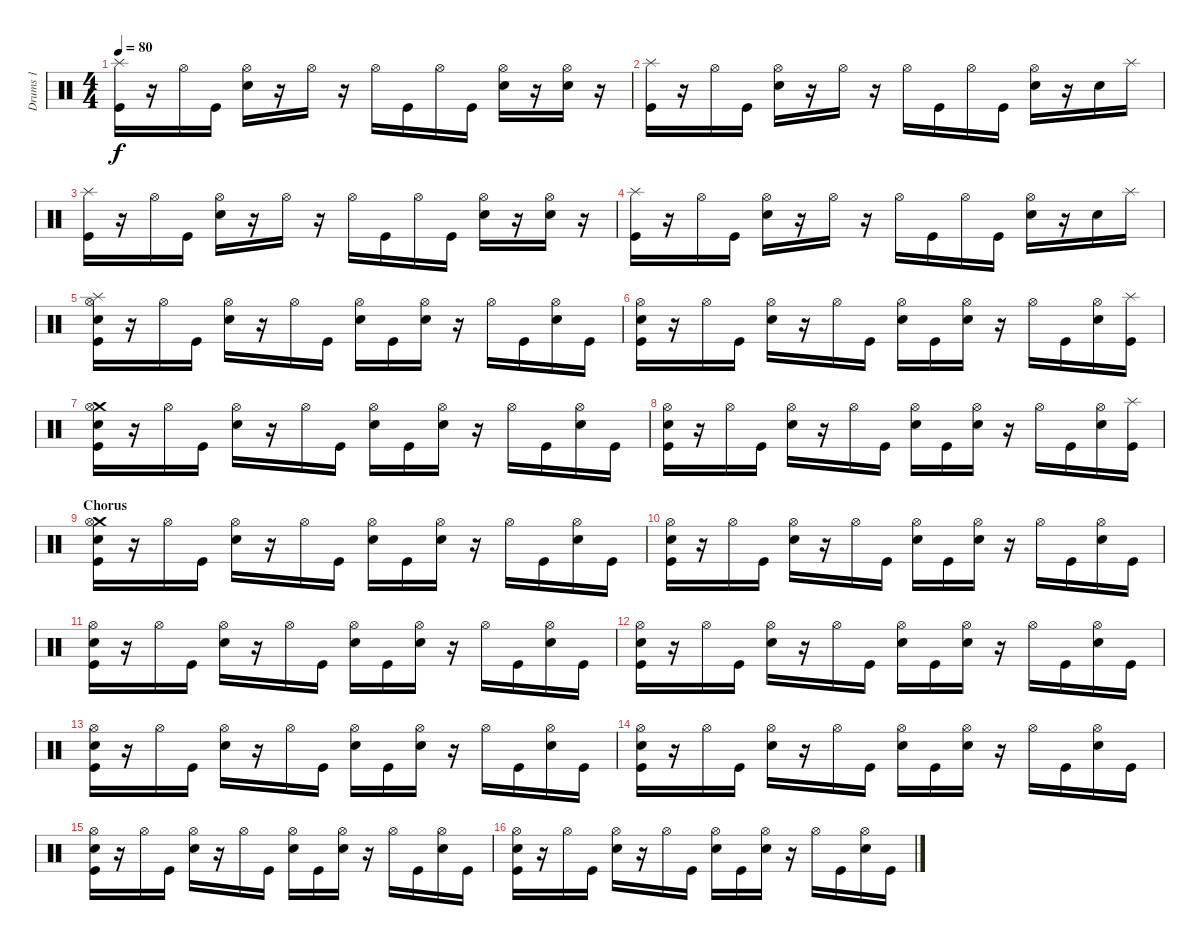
\track ("Drums 1" "Drums 1") {instrument percussion}
\staff {score}
\articulation defaults
\ts (4 4)
\tempo 80
\clef neutral
\ks c
("Splash (hit)" "Kick (hit)").16{dy f} r.16 "Hi-Hat (open)".16 "Kick (hit)".16 ("Hi-Hat (open)" "Electric Snare (hit)").16 r.16 "Hi-Hat (open)".16 r.16 "Hi-Hat (open)".16 "Kick (hit)".16 "Hi-Hat (open)".16 "Kick (hit)".16 ("Hi-Hat (open)" "Electric Snare (hit)").16 r.16 ("Hi-Hat (open)" "Electric Snare (hit)").16 r.16 |
("Splash (hit)" "Kick (hit)").16 r.16 "Hi-Hat (open)".16 "Kick (hit)".16 ("Hi-Hat (open)" "Electric Snare (hit)").16 r.16 "Hi-Hat (open)".16 r.16 "Hi-Hat (open)".16 "Kick (hit)".16 "Hi-Hat (open)".16 "Kick (hit)".16 ("Hi-Hat (open)" "Electric Snare (hit)").16 r.16 "Electric Snare (hit)".16 "Splash (hit)".16 |
("Splash (hit)" "Kick (hit)").16 r.16 "Hi-Hat (open)".16 "Kick (hit)".16 ("Hi-Hat (open)" "Electric Snare (hit)").16 r.16 "Hi-Hat (open)".16 r.16 "Hi-Hat (open)".16 "Kick (hit)".16 "Hi-Hat (open)".16 "Kick (hit)".16 ("Hi-Hat (open)" "Electric Snare (hit)").16 r.16 ("Hi-Hat (open)" "Electric Snare (hit)").16 r.16 |
("Splash (hit)" "Kick (hit)").16 r.16 "Hi-Hat (open)".16 "Kick (hit)".16 ("Hi-Hat (open)" "Electric Snare (hit)").16 r.16 "Hi-Hat (open)".16 r.16 "Hi-Hat (open)".16 "Kick (hit)".16 "Hi-Hat (open)".16 "Kick (hit)".16 ("Hi-Hat (open)" "Electric Snare (hit)").16 r.16 "Electric Snare (hit)".16 "Splash (hit)".16 |
("Splash (hit)" "Hi-Hat (open)" "Electric Snare (hit)" "Kick (hit)").16 r.16 "Hi-Hat (open)".16 "Kick (hit)".16 ("Hi-Hat (open)" "Electric Snare (hit)").16 r.16 "Hi-Hat (open)".16 "Kick (hit)".16 ("Hi-Hat (open)" "Electric Snare (hit)").16 "Kick (hit)".16 ("Hi-Hat (open)" "Electric Snare (hit)").16 r.16 "Hi-Hat (open)".16 "Kick (hit)".16 ("Hi-Hat (open)" "Electric Snare (hit)").16 "Kick (hit)".16 |
("Hi-Hat (open)" "Electric Snare (hit)" "Kick (hit)").16 r.16 "Hi-Hat (open)".16 "Kick (hit)".16 ("Hi-Hat (open)" "Electric Snare (hit)").16 r.16 "Hi-Hat (open)".16 "Kick (hit)".16 ("Hi-Hat (open)" "Electric Snare (hit)").16 "Kick (hit)".16 ("Hi-Hat (open)" "Electric Snare (hit)").16 r.16 "Hi-Hat (open)".16 "Kick (hit)".16 ("Hi-Hat (open)" "Electric Snare (hit)").16 ("Splash (hit)" "Kick (hit)").16 |
("Crash medium (hit)" "Hi-Hat (open)" "Electric Snare (hit)" "Kick (hit)").16 r.16 "Hi-Hat (open)".16 "Kick (hit)".16 ("Hi-Hat (open)" "Electric Snare (hit)").16 r.16 "Hi-Hat (open)".16 "Kick (hit)".16 ("Hi-Hat (open)" "Electric Snare (hit)").16 "Kick (hit)".16 ("Hi-Hat (open)" "Electric Snare (hit)").16 r.16 "Hi-Hat (open)".16 "Kick (hit)".16 ("Hi-Hat (open)" "Electric Snare (hit)").16 "Kick (hit)".16 |
("Hi-Hat (open)" "Electric Snare (hit)" "Kick (hit)").16 r.16 "Hi-Hat (open)".16 "Kick (hit)".16 ("Hi-Hat (open)" "Electric Snare (hit)").16 r.16 "Hi-Hat (open)".16 "Kick (hit)".16 ("Hi-Hat (open)" "Electric Snare (hit)").16 "Kick (hit)".16 ("Hi-Hat (open)" "Electric Snare (hit)").16 r.16 "Hi-Hat (open)".16 "Kick (hit)".16 ("Hi-Hat (open)" "Electric Snare (hit)").16 ("Splash (hit)" "Kick (hit)").16 |
\section ("" "Chorus")
("Crash medium (hit)" "Hi-Hat (open)" "Electric Snare (hit)" "Kick (hit)").16 r.16 "Hi-Hat (open)".16 "Kick (hit)".16 ("Hi-Hat (open)" "Electric Snare (hit)").16 r.16 "Hi-Hat (open)".16 "Kick (hit)".16 ("Hi-Hat (open)" "Electric Snare (hit)").16 "Kick (hit)".16 ("Hi-Hat (open)" "Electric Snare (hit)").16 r.16 "Hi-Hat (open)".16 "Kick (hit)".16 ("Hi-Hat (open)" "Electric Snare (hit)").16 "Kick (hit)".16 |
("Hi-Hat (open)" "Electric Snare (hit)" "Kick (hit)").16 r.16 "Hi-Hat (open)".16 "Kick (hit)".16 ("Hi-Hat (open)" "Electric Snare (hit)").16 r.16 "Hi-Hat (open)".16 "Kick (hit)".16 ("Hi-Hat (open)" "Electric Snare (hit)").16 "Kick (hit)".16 ("Hi-Hat (open)" "Electric Snare (hit)").16 r.16 "Hi-Hat (open)".16 "Kick (hit)".16 ("Hi-Hat (open)" "Electric Snare (hit)").16 "Kick (hit)".16 |
("Hi-Hat (open)" "Electric Snare (hit)" "Kick (hit)").16 r.16 "Hi-Hat (open)".16 "Kick (hit)".16 ("Hi-Hat (open)" "Electric Snare (hit)").16 r.16 "Hi-Hat (open)".16 "Kick (hit)".16 ("Hi-Hat (open)" "Electric Snare (hit)").16 "Kick (hit)".16 ("Hi-Hat (open)" "Electric Snare (hit)").16 r.16 "Hi-Hat (open)".16 "Kick (hit)".16 ("Hi-Hat (open)" "Electric Snare (hit)").16 "Kick (hit)".16 |
("Hi-Hat (open)" "Electric Snare (hit)" "Kick (hit)").16 r.16 "Hi-Hat (open)".16 "Kick (hit)".16 ("Hi-Hat (open)" "Electric Snare (hit)").16 r.16 "Hi-Hat (open)".16 "Kick (hit)".16 ("Hi-Hat (open)" "Electric Snare (hit)").16 "Kick (hit)".16 ("Hi-Hat (open)" "Electric Snare (hit)").16 r.16 "Hi-Hat (open)".16 "Kick (hit)".16 ("Hi-Hat (open)" "Electric Snare (hit)").16 "Kick (hit)".16 |
("Hi-Hat (open)" "Electric Snare (hit)" "Kick (hit)").16 r.16 "Hi-Hat (open)".16 "Kick (hit)".16 ("Hi-Hat (open)" "Electric Snare (hit)").16 r.16 "Hi-Hat (open)".16 "Kick (hit)".16 ("Hi-Hat (open)" "Electric Snare (hit)").16 "Kick (hit)".16 ("Hi-Hat (open)" "Electric Snare (hit)").16 r.16 "Hi-Hat (open)".16 "Kick (hit)".16 ("Hi-Hat (open)" "Electric Snare (hit)").16 "Kick (hit)".16 |
("Hi-Hat (open)" "Electric Snare (hit)" "Kick (hit)").16 r.16 "Hi-Hat (open)".16 "Kick (hit)".16 ("Hi-Hat (open)" "Electric Snare (hit)").16 r.16 "Hi-Hat (open)".16 "Kick (hit)".16 ("Hi-Hat (open)" "Electric Snare (hit)").16 "Kick (hit)".16 ("Hi-Hat (open)" "Electric Snare (hit)").16 r.16 "Hi-Hat (open)".16 "Kick (hit)".16 ("Hi-Hat (open)" "Electric Snare (hit)").16 "Kick (hit)".16 |
("Hi-Hat (open)" "Electric Snare (hit)" "Kick (hit)").16 r.16 "Hi-Hat (open)".16 "Kick (hit)".16 ("Hi-Hat (open)" "Electric Snare (hit)").16 r.16 "Hi-Hat (open)".16 "Kick (hit)".16 ("Hi-Hat (open)" "Electric Snare (hit)").16 "Kick (hit)".16 ("Hi-Hat (open)" "Electric Snare (hit)").16 r.16 "Hi-Hat (open)".16 "Kick (hit)".16 ("Hi-Hat (open)" "Electric Snare (hit)").16 "Kick (hit)".16 |
("Hi-Hat (open)" "Electric Snare (hit)" "Kick (hit)").16 r.16 "Hi-Hat (open)".16 "Kick (hit)".16 ("Hi-Hat (open)" "Electric Snare (hit)").16 r.16 "Hi-Hat (open)".16 "Kick (hit)".16 ("Hi-Hat (open)" "Electric Snare (hit)").16 "Kick (hit)".16 ("Hi-Hat (open)" "Electric Snare (hit)").16 r.16 "Hi-Hat (open)".16 "Kick (hit)".16 ("Hi-Hat (open)" "Electric Snare (hit)").16 "Kick (hit)".16
